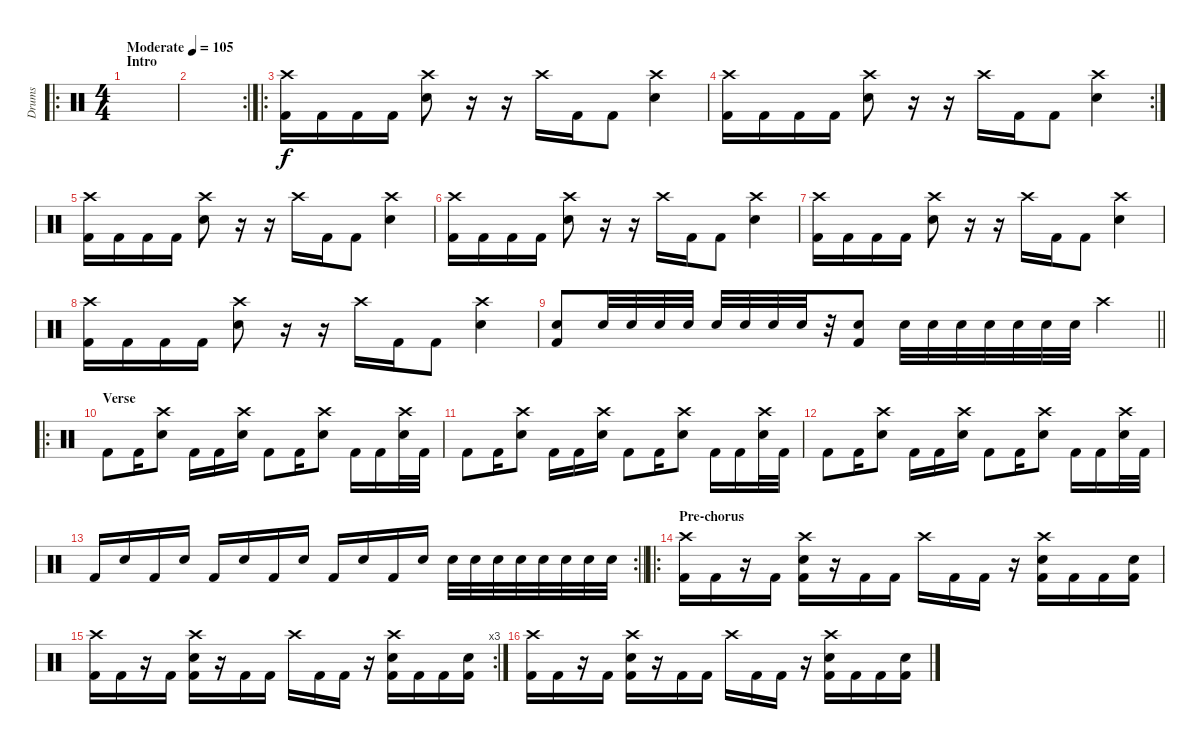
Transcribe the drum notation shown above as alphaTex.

\track ("Drums" "Drums") {instrument percussion}
\staff {score}
\articulation defaults
\ro
\ts (4 4)
\section ("" "Intro")
\tempo (105 "Moderate")
\clef neutral
\ks c
|
\rc 2
|
\ro
("Crash high (hit)" "Kick (hit) 2").16 "Kick (hit) 2".16 "Kick (hit) 2".16 "Kick (hit) 2".16 ("Crash high (hit)" "Electric Snare (hit)").8 r.16 r.16 "Crash high (hit)".16 "Kick (hit) 2".16 "Kick (hit) 2".8 ("Crash high (hit)" "Electric Snare (hit)").4 |
\rc 2
("Crash high (hit)" "Kick (hit) 2").16 "Kick (hit) 2".16 "Kick (hit) 2".16 "Kick (hit) 2".16 ("Crash high (hit)" "Electric Snare (hit)").8 r.16 r.16 "Crash high (hit)".16 "Kick (hit) 2".16 "Kick (hit) 2".8 ("Crash high (hit)" "Electric Snare (hit)").4 |
("Crash high (hit)" "Kick (hit) 2").16 "Kick (hit) 2".16 "Kick (hit) 2".16 "Kick (hit) 2".16 ("Crash high (hit)" "Electric Snare (hit)").8 r.16 r.16 "Crash high (hit)".16 "Kick (hit) 2".16 "Kick (hit) 2".8 ("Crash high (hit)" "Electric Snare (hit)").4 |
("Crash high (hit)" "Kick (hit) 2").16 "Kick (hit) 2".16 "Kick (hit) 2".16 "Kick (hit) 2".16 ("Crash high (hit)" "Electric Snare (hit)").8 r.16 r.16 "Crash high (hit)".16 "Kick (hit) 2".16 "Kick (hit) 2".8 ("Crash high (hit)" "Electric Snare (hit)").4 |
("Crash high (hit)" "Kick (hit) 2").16 "Kick (hit) 2".16 "Kick (hit) 2".16 "Kick (hit) 2".16 ("Crash high (hit)" "Electric Snare (hit)").8 r.16 r.16 "Crash high (hit)".16 "Kick (hit) 2".16 "Kick (hit) 2".8 ("Crash high (hit)" "Electric Snare (hit)").4 |
("Crash high (hit)" "Kick (hit) 2").16 "Kick (hit) 2".16 "Kick (hit) 2".16 "Kick (hit) 2".16 ("Crash high (hit)" "Electric Snare (hit)").8 r.16 r.16 "Crash high (hit)".16 "Kick (hit) 2".16 "Kick (hit) 2".8 ("Crash high (hit)" "Electric Snare (hit)").4 |
\barLineRight lightlight
("Electric Snare (hit)" "Kick (hit) 2").8 "Electric Snare (hit)".32 "Electric Snare (hit)".32 "Electric Snare (hit)".32 "Electric Snare (hit)".32 "Electric Snare (hit)".32 "Electric Snare (hit)".32 "Electric Snare (hit)".32 "Electric Snare (hit)".32 r.32 ("Electric Snare (hit)" "Kick (hit) 2").8 "Electric Snare (hit)".32 "Electric Snare (hit)".32 "Electric Snare (hit)".32 "Electric Snare (hit)".32 "Electric Snare (hit)".32 "Electric Snare (hit)".32 "Electric Snare (hit)".32 "Crash high (hit)".4 |
\ro
\section ("" "Verse")
"Kick (hit) 2".8 "Kick (hit) 2".16 ("Crash high (hit)" "Electric Snare (hit)").8 "Kick (hit) 2".16 "Kick (hit) 2".16 ("Crash high (hit)" "Electric Snare (hit)").16 "Kick (hit) 2".8 "Kick (hit) 2".16 ("Crash high (hit)" "Electric Snare (hit)").8 "Kick (hit) 2".16 "Kick (hit) 2".16 ("Crash high (hit)" "Electric Snare (hit)").32 "Kick (hit) 2".32 |
"Kick (hit) 2".8 "Kick (hit) 2".16 ("Crash high (hit)" "Electric Snare (hit)").8 "Kick (hit) 2".16 "Kick (hit) 2".16 ("Crash high (hit)" "Electric Snare (hit)").16 "Kick (hit) 2".8 "Kick (hit) 2".16 ("Crash high (hit)" "Electric Snare (hit)").8 "Kick (hit) 2".16 "Kick (hit) 2".16 ("Crash high (hit)" "Electric Snare (hit)").32 "Kick (hit) 2".32 |
"Kick (hit) 2".8 "Kick (hit) 2".16 ("Crash high (hit)" "Electric Snare (hit)").8 "Kick (hit) 2".16 "Kick (hit) 2".16 ("Crash high (hit)" "Electric Snare (hit)").16 "Kick (hit) 2".8 "Kick (hit) 2".16 ("Crash high (hit)" "Electric Snare (hit)").8 "Kick (hit) 2".16 "Kick (hit) 2".16 ("Crash high (hit)" "Electric Snare (hit)").32 "Kick (hit) 2".32 |
\rc 2
\barLineRight lightlight "Kick (hit) 2".16 "Electric Snare (hit)".16 "Kick (hit) 2".16 "Electric Snare (hit)".16 "Kick (hit) 2".16 "Electric Snare (hit)".16 "Kick (hit) 2".16 "Electric Snare (hit)".16 "Kick (hit) 2".16 "Electric Snare (hit)".16 "Kick (hit) 2".16 "Electric Snare (hit)".16 "Electric Snare (hit)".32 "Electric Snare (hit)".32 "Electric Snare (hit)".32 "Electric Snare (hit)".32 "Electric Snare (hit)".32 "Electric Snare (hit)".32 "Electric Snare (hit)".32 "Electric Snare (hit)".32
|
\ro
\section ("" "Pre-chorus")
("Crash high (hit)" "Kick (hit) 2").16 "Kick (hit) 2".16 r.16 "Kick (hit) 2".16 ("Crash high (hit)" "Electric Snare (hit)" "Kick (hit) 2").16 r.16 "Kick (hit) 2".16 "Kick (hit) 2".16 "Crash high (hit)".16 "Kick (hit) 2".16 "Kick (hit) 2".16 r.16 ("Crash high (hit)" "Electric Snare (hit)" "Kick (hit) 2").16 "Kick (hit) 2".16 "Kick (hit) 2".16 ("Electric Snare (hit)" "Kick (hit) 2").16 |
\rc 3
("Crash high (hit)" "Kick (hit) 2").16 "Kick (hit) 2".16 r.16 "Kick (hit) 2".16 ("Crash high (hit)" "Electric Snare (hit)" "Kick (hit) 2").16 r.16 "Kick (hit) 2".16 "Kick (hit) 2".16 "Crash high (hit)".16 "Kick (hit) 2".16 "Kick (hit) 2".16 r.16 ("Crash high (hit)" "Electric Snare (hit)" "Kick (hit) 2").16 "Kick (hit) 2".16 "Kick (hit) 2".16 ("Electric Snare (hit)" "Kick (hit) 2").16 |
("Crash high (hit)" "Kick (hit) 2").16 "Kick (hit) 2".16 r.16 "Kick (hit) 2".16 ("Crash high (hit)" "Electric Snare (hit)" "Kick (hit) 2").16 r.16 "Kick (hit) 2".16 "Kick (hit) 2".16 "Crash high (hit)".16 "Kick (hit) 2".16 "Kick (hit) 2".16 r.16 ("Crash high (hit)" "Electric Snare (hit)" "Kick (hit) 2").16 "Kick (hit) 2".16 "Kick (hit) 2".16 ("Electric Snare (hit)" "Kick (hit) 2").16
